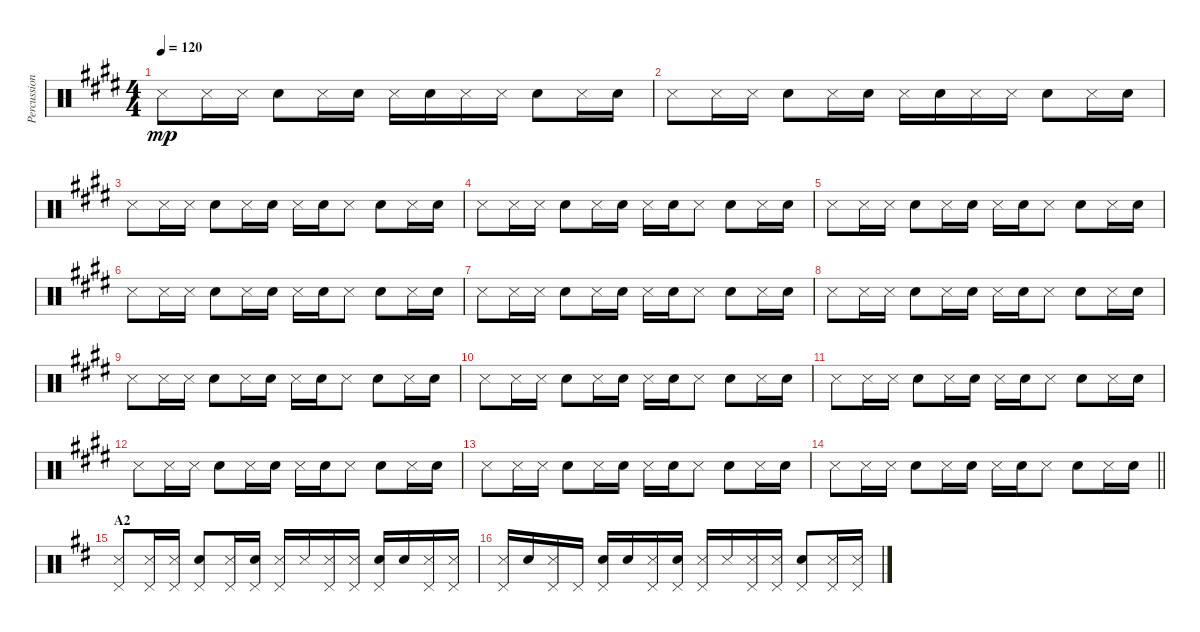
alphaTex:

\track ("Percussion (Tainaka Ritsu)" "Percussion") {instrument percussion}
\staff {score}
\articulation defaults
\ts (4 4)
\tempo 120
\clef neutral
\ks e "Snare (side stick) 3".8{dy mp} "Snare (side stick) 3".16 "Snare (side stick) 3".16 "Snare (hit) 2".8 "Snare (side stick) 3".16 "Snare (hit) 2".16 "Snare (side stick) 3".16 "Snare (hit) 2".16 "Snare (side stick) 3".16 "Snare (side stick) 3".16 "Snare (hit) 2".8 "Snare (side stick) 3".16 "Snare (hit) 2".16
|
"Snare (side stick) 3".8 "Snare (side stick) 3".16 "Snare (side stick) 3".16 "Snare (hit) 2".8 "Snare (side stick) 3".16 "Snare (hit) 2".16 "Snare (side stick) 3".16 "Snare (hit) 2".16 "Snare (side stick) 3".16 "Snare (side stick) 3".16 "Snare (hit) 2".8 "Snare (side stick) 3".16 "Snare (hit) 2".16 |
"Snare (side stick) 3".8 "Snare (side stick) 3".16 "Snare (side stick) 3".16 "Snare (hit) 2".8 "Snare (side stick) 3".16 "Snare (hit) 2".16 "Snare (side stick) 3".16 "Snare (hit) 2".16 "Snare (side stick) 3".8 "Snare (hit) 2".8 "Snare (side stick) 3".16 "Snare (hit) 2".16 |
"Snare (side stick) 3".8 "Snare (side stick) 3".16 "Snare (side stick) 3".16 "Snare (hit) 2".8 "Snare (side stick) 3".16 "Snare (hit) 2".16 "Snare (side stick) 3".16 "Snare (hit) 2".16 "Snare (side stick) 3".8 "Snare (hit) 2".8 "Snare (side stick) 3".16 "Snare (hit) 2".16 |
"Snare (side stick) 3".8 "Snare (side stick) 3".16 "Snare (side stick) 3".16 "Snare (hit) 2".8 "Snare (side stick) 3".16 "Snare (hit) 2".16 "Snare (side stick) 3".16 "Snare (hit) 2".16 "Snare (side stick) 3".8 "Snare (hit) 2".8 "Snare (side stick) 3".16 "Snare (hit) 2".16 |
"Snare (side stick) 3".8 "Snare (side stick) 3".16 "Snare (side stick) 3".16 "Snare (hit) 2".8 "Snare (side stick) 3".16 "Snare (hit) 2".16 "Snare (side stick) 3".16 "Snare (hit) 2".16 "Snare (side stick) 3".8 "Snare (hit) 2".8 "Snare (side stick) 3".16 "Snare (hit) 2".16 |
"Snare (side stick) 3".8 "Snare (side stick) 3".16 "Snare (side stick) 3".16 "Snare (hit) 2".8 "Snare (side stick) 3".16 "Snare (hit) 2".16 "Snare (side stick) 3".16 "Snare (hit) 2".16 "Snare (side stick) 3".8 "Snare (hit) 2".8 "Snare (side stick) 3".16 "Snare (hit) 2".16 |
"Snare (side stick) 3".8 "Snare (side stick) 3".16 "Snare (side stick) 3".16 "Snare (hit) 2".8 "Snare (side stick) 3".16 "Snare (hit) 2".16 "Snare (side stick) 3".16 "Snare (hit) 2".16 "Snare (side stick) 3".8 "Snare (hit) 2".8 "Snare (side stick) 3".16 "Snare (hit) 2".16 |
"Snare (side stick) 3".8 "Snare (side stick) 3".16 "Snare (side stick) 3".16 "Snare (hit) 2".8 "Snare (side stick) 3".16 "Snare (hit) 2".16 "Snare (side stick) 3".16 "Snare (hit) 2".16 "Snare (side stick) 3".8 "Snare (hit) 2".8 "Snare (side stick) 3".16 "Snare (hit) 2".16 |
"Snare (side stick) 3".8 "Snare (side stick) 3".16 "Snare (side stick) 3".16 "Snare (hit) 2".8 "Snare (side stick) 3".16 "Snare (hit) 2".16 "Snare (side stick) 3".16 "Snare (hit) 2".16 "Snare (side stick) 3".8 "Snare (hit) 2".8 "Snare (side stick) 3".16 "Snare (hit) 2".16 |
"Snare (side stick) 3".8 "Snare (side stick) 3".16 "Snare (side stick) 3".16 "Snare (hit) 2".8 "Snare (side stick) 3".16 "Snare (hit) 2".16 "Snare (side stick) 3".16 "Snare (hit) 2".16 "Snare (side stick) 3".8 "Snare (hit) 2".8 "Snare (side stick) 3".16 "Snare (hit) 2".16 |
"Snare (side stick) 3".8 "Snare (side stick) 3".16 "Snare (side stick) 3".16 "Snare (hit) 2".8 "Snare (side stick) 3".16 "Snare (hit) 2".16 "Snare (side stick) 3".16 "Snare (hit) 2".16 "Snare (side stick) 3".8 "Snare (hit) 2".8 "Snare (side stick) 3".16 "Snare (hit) 2".16 |
"Snare (side stick) 3".8 "Snare (side stick) 3".16 "Snare (side stick) 3".16 "Snare (hit) 2".8 "Snare (side stick) 3".16 "Snare (hit) 2".16 "Snare (side stick) 3".16 "Snare (hit) 2".16 "Snare (side stick) 3".8 "Snare (hit) 2".8 "Snare (side stick) 3".16 "Snare (hit) 2".16 |
\barLineRight lightlight "Snare (side stick) 3".8 "Snare (side stick) 3".16 "Snare (side stick) 3".16 "Snare (hit) 2".8 "Snare (side stick) 3".16 "Snare (hit) 2".16 "Snare (side stick) 3".16 "Snare (hit) 2".16 "Snare (side stick) 3".8 "Snare (hit) 2".8 "Snare (side stick) 3".16 "Snare (hit) 2".16
|
\section ("" "A2")
\ks d
("Snare (side stick) 3" "Pedal Hi-Hat (hit)").8 ("Snare (side stick) 3" "Pedal Hi-Hat (hit)").16 ("Snare (side stick) 3" "Pedal Hi-Hat (hit)").16 ("Snare (hit) 2" "Pedal Hi-Hat (hit)").8 ("Snare (side stick) 3" "Pedal Hi-Hat (hit)").16 ("Snare (hit) 2" "Pedal Hi-Hat (hit)").16 ("Snare (side stick) 3" "Pedal Hi-Hat (hit)").16 "Snare (side stick) 3".16 ("Snare (side stick) 3" "Pedal Hi-Hat (hit)").16 ("Snare (side stick) 3" "Pedal Hi-Hat (hit)").16 ("Snare (hit) 2" "Pedal Hi-Hat (hit)").16 "Snare (hit) 2".16 ("Snare (side stick) 3" "Pedal Hi-Hat (hit)").16 ("Snare (side stick) 3" "Pedal Hi-Hat (hit)").16 |
("Snare (side stick) 3" "Pedal Hi-Hat (hit)").16 "Snare (hit) 2".16 ("Snare (side stick) 3" "Pedal Hi-Hat (hit)").16 "Pedal Hi-Hat (hit)".16 ("Snare (hit) 2" "Pedal Hi-Hat (hit)").16 "Snare (hit) 2".16 ("Snare (side stick) 3" "Pedal Hi-Hat (hit)").16 ("Snare (hit) 2" "Pedal Hi-Hat (hit)").16 ("Snare (side stick) 3" "Pedal Hi-Hat (hit)").16 "Snare (side stick) 3".16 ("Snare (side stick) 3" "Pedal Hi-Hat (hit)").16 ("Snare (side stick) 3" "Pedal Hi-Hat (hit)").16 ("Snare (hit) 2" "Pedal Hi-Hat (hit)").8 ("Snare (side stick) 3" "Pedal Hi-Hat (hit)").16 ("Snare (side stick) 3" "Pedal Hi-Hat (hit)").16
